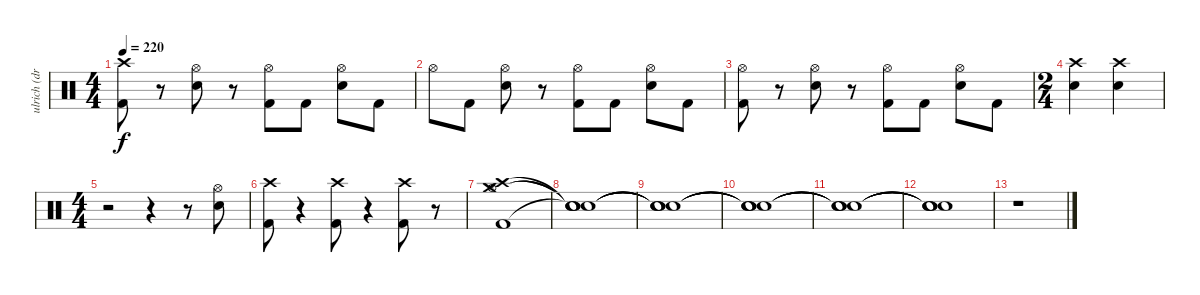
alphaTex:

\track ("ulrich (drums)" "ulrich (dr") {instrument percussion}
\staff {score}
\articulation defaults
\ts (4 4)
\tempo 220
\clef neutral
\ks c
("Crash high (hit)" "Kick (hit) 2").8{dy f} r.8 ("Hi-Hat (open)" "Snare (hit) 2").8 r.8 ("Hi-Hat (open)" "Kick (hit) 2").8 "Kick (hit) 2".8 ("Hi-Hat (open)" "Snare (hit) 2").8 "Kick (hit) 2".8 |
"Hi-Hat (open)".8 "Kick (hit) 2".8 ("Hi-Hat (open)" "Snare (hit) 2").8 r.8 ("Hi-Hat (open)" "Kick (hit) 2").8 "Kick (hit) 2".8 ("Hi-Hat (open)" "Snare (hit) 2").8 "Kick (hit) 2".8 |
("Hi-Hat (open)" "Kick (hit) 2").8 r.8 ("Hi-Hat (open)" "Snare (hit) 2").8 r.8 ("Hi-Hat (open)" "Kick (hit) 2").8 "Kick (hit) 2".8 ("Hi-Hat (open)" "Snare (hit) 2").8 "Kick (hit) 2".8 |
\ts (2 4)
("Crash high (hit)" "Snare (hit) 2").4 ("Crash high (hit)" "Snare (hit) 2").4 |
\ts (4 4)
r.2 r.4 r.8 ("Hi-Hat (open)" "Snare (hit) 2").8 |
("Crash high (hit)" "Kick (hit) 2").8 r.4 ("Crash high (hit)" "Kick (hit) 2").8 r.4 ("Crash high (hit)" "Kick (hit) 2").8 r.8 |
("Crash high (hit)" "Crash medium (hit)" "Hi-Hat (open)" "Kick (hit) 2").1 |
("Snare (hit)"{t} "Snare (hit)"{t} "Snare (hit)"{t} "Snare (hit)"{t}).1 |
("Snare (hit)"{t} "Snare (hit)"{t} "Snare (hit)"{t} "Snare (hit)"{t}).1 |
("Snare (hit)"{t} "Snare (hit)"{t} "Snare (hit)"{t} "Snare (hit)"{t}).1 |
("Snare (hit)"{t} "Snare (hit)"{t} "Snare (hit)"{t} "Snare (hit)"{t}).1 |
("Snare (hit)"{t} "Snare (hit)"{t} "Snare (hit)"{t} "Snare (hit)"{t}).1 |
r.1
